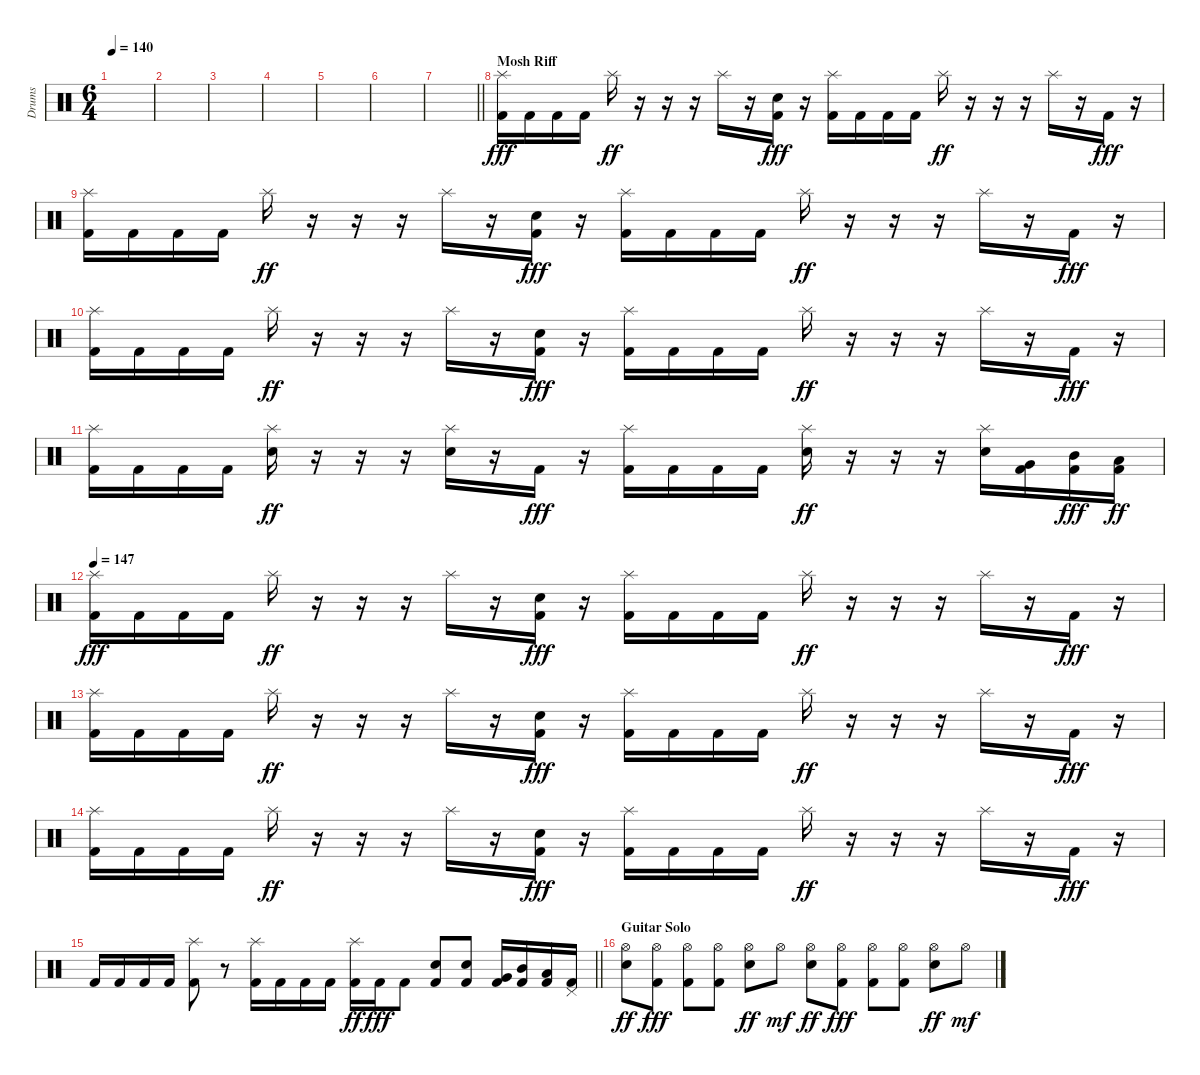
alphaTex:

\track ("Drums" "Drums") {instrument percussion}
\staff {score}
\articulation defaults
\ts (6 4)
\tempo 140
\clef neutral
\ks c
|
|
|
|
|
|
\barLineRight lightlight
|
\section ("" "Mosh Riff")
("Splash (hit)" "Kick (hit) 2").16{dy fff} "Kick (hit) 2".16 "Kick (hit) 2".16 "Kick (hit) 2".16 "Splash (hit)".16{dy ff} r.16 r.16 r.16 "Splash (hit)".16 r.16 ("Electric Snare (hit)" "Kick (hit) 2").16{dy fff} r.16 ("Splash (hit)" "Kick (hit) 2").16 "Kick (hit) 2".16 "Kick (hit) 2".16 "Kick (hit) 2".16 "Splash (hit)".16{dy ff} r.16 r.16 r.16 "Splash (hit)".16 r.16 "Kick (hit) 2".16{dy fff} r.16 |
("Splash (hit)" "Kick (hit) 2").16 "Kick (hit) 2".16 "Kick (hit) 2".16 "Kick (hit) 2".16 "Splash (hit)".16{dy ff} r.16 r.16 r.16 "Splash (hit)".16 r.16 ("Electric Snare (hit)" "Kick (hit) 2").16{dy fff} r.16 ("Splash (hit)" "Kick (hit) 2").16 "Kick (hit) 2".16 "Kick (hit) 2".16 "Kick (hit) 2".16 "Splash (hit)".16{dy ff} r.16 r.16 r.16 "Splash (hit)".16 r.16 "Kick (hit) 2".16{dy fff} r.16 |
("Splash (hit)" "Kick (hit) 2").16 "Kick (hit) 2".16 "Kick (hit) 2".16 "Kick (hit) 2".16 "Splash (hit)".16{dy ff} r.16 r.16 r.16 "Splash (hit)".16 r.16 ("Electric Snare (hit)" "Kick (hit) 2").16{dy fff} r.16 ("Splash (hit)" "Kick (hit) 2").16 "Kick (hit) 2".16 "Kick (hit) 2".16 "Kick (hit) 2".16 "Splash (hit)".16{dy ff} r.16 r.16 r.16 "Splash (hit)".16 r.16 "Kick (hit) 2".16{dy fff} r.16 |
("Splash (hit)" "Kick (hit) 2").16 "Kick (hit) 2".16 "Kick (hit) 2".16 "Kick (hit) 2".16 ("Splash (hit)" "Electric Snare (hit)").16{dy ff} r.16 r.16 r.16 ("Splash (hit)" "Electric Snare (hit)").16 r.16 "Kick (hit) 2".16{dy fff} r.16 ("Splash (hit)" "Kick (hit) 2").16 "Kick (hit) 2".16 "Kick (hit) 2".16 "Kick (hit) 2".16 ("Splash (hit)" "Electric Snare (hit)").16{dy ff} r.16 r.16 r.16 ("Splash (hit)" "Electric Snare (hit)").16 ("Very Low Tom (hit)" "Kick (hit) 2").16 ("Mid Tom (hit)" "Kick (hit) 2").16{dy fff} ("Low Tom (hit)" "Kick (hit) 2").16{dy ff} |
\tempo 147
("Splash (hit)" "Kick (hit) 2").16{dy fff} "Kick (hit) 2".16 "Kick (hit) 2".16 "Kick (hit) 2".16 "Splash (hit)".16{dy ff} r.16 r.16 r.16 "Splash (hit)".16 r.16 ("Electric Snare (hit)" "Kick (hit) 2").16{dy fff} r.16 ("Splash (hit)" "Kick (hit) 2").16 "Kick (hit) 2".16 "Kick (hit) 2".16 "Kick (hit) 2".16 "Splash (hit)".16{dy ff} r.16 r.16 r.16 "Splash (hit)".16 r.16 "Kick (hit) 2".16{dy fff} r.16 |
("Splash (hit)" "Kick (hit) 2").16 "Kick (hit) 2".16 "Kick (hit) 2".16 "Kick (hit) 2".16 "Splash (hit)".16{dy ff} r.16 r.16 r.16 "Splash (hit)".16 r.16 ("Electric Snare (hit)" "Kick (hit) 2").16{dy fff} r.16 ("Splash (hit)" "Kick (hit) 2").16 "Kick (hit) 2".16 "Kick (hit) 2".16 "Kick (hit) 2".16 "Splash (hit)".16{dy ff} r.16 r.16 r.16 "Splash (hit)".16 r.16 "Kick (hit) 2".16{dy fff} r.16 |
("Splash (hit)" "Kick (hit) 2").16 "Kick (hit) 2".16 "Kick (hit) 2".16 "Kick (hit) 2".16 "Splash (hit)".16{dy ff} r.16 r.16 r.16 "Splash (hit)".16 r.16 ("Electric Snare (hit)" "Kick (hit) 2").16{dy fff} r.16 ("Splash (hit)" "Kick (hit) 2").16 "Kick (hit) 2".16 "Kick (hit) 2".16 "Kick (hit) 2".16 "Splash (hit)".16{dy ff} r.16 r.16 r.16 "Splash (hit)".16 r.16 "Kick (hit) 2".16{dy fff} r.16 |
\barLineRight lightlight "Kick (hit) 2".16 "Kick (hit) 2".16 "Kick (hit) 2".16 "Kick (hit) 2".16
("Splash (hit)" "Kick (hit) 2").8 r.8 ("Splash (hit)" "Kick (hit) 2").16 "Kick (hit) 2".16 "Kick (hit) 2".16 "Kick (hit) 2".16 ("Splash (hit)" "Kick (hit) 2").16{dy ff} "Kick (hit) 2".16{dy fff} "Kick (hit) 2".8 ("Electric Snare (hit)" "Kick (hit) 2").8 ("Electric Snare (hit)" "Kick (hit) 2").8 ("Very Low Tom (hit)" "Kick (hit) 2").16 ("Mid Tom (hit)" "Kick (hit) 2").16 ("Low Tom (hit)" "Kick (hit) 2").16 ("Pedal Hi-Hat (hit)" "Kick (hit) 2").16 |
\section ("" "Guitar Solo")
("Hi-Hat (open)" "Electric Snare (hit)").8{dy ff} ("Hi-Hat (open)" "Kick (hit) 2").8{dy fff} ("Hi-Hat (open)" "Kick (hit) 2").8 ("Hi-Hat (open)" "Kick (hit) 2").8 ("Hi-Hat (open)" "Electric Snare (hit)").8{dy ff} "Hi-Hat (open)".8{dy mf} ("Hi-Hat (open)" "Electric Snare (hit)").8{dy ff} ("Hi-Hat (open)" "Kick (hit) 2").8{dy fff} ("Hi-Hat (open)" "Kick (hit) 2").8 ("Hi-Hat (open)" "Kick (hit) 2").8 ("Hi-Hat (open)" "Electric Snare (hit)").8{dy ff} "Hi-Hat (open)".8{dy mf}
